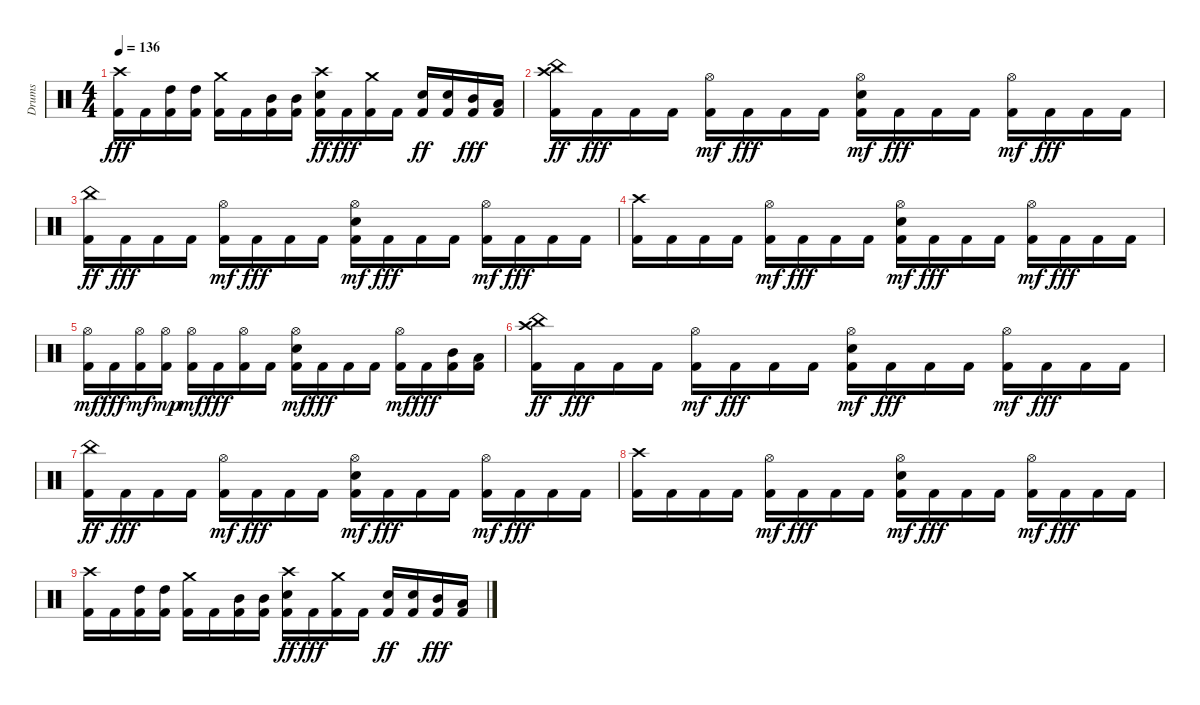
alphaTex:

\track ("Drums" "Drums") {instrument percussion}
\staff {score}
\articulation defaults
\ts (4 4)
\tempo 136
\clef neutral
\ks c
("Kick (hit) 2" "Crash high (hit)").16{dy fff} "Kick (hit) 2".16 ("Kick (hit) 2" "High Tom (hit)").16 ("Kick (hit) 2" "High Tom (hit)").16 ("Kick (hit) 2" "Crash medium (hit)").16 "Kick (hit) 2".16 ("Kick (hit) 2" "Mid Tom (hit)").16 ("Kick (hit) 2" "Mid Tom (hit)").16 ("Kick (hit) 2" "Snare (hit) 2" "Crash high (hit)").16{dy ff} "Kick (hit) 2".16{dy fff} ("Kick (hit) 2" "Crash medium (hit)").16 "Kick (hit) 2".16 ("Kick (hit) 2" "Snare (hit) 2").16{dy ff} ("Kick (hit) 2" "Snare (hit) 2").16 ("Kick (hit) 2" "Mid Tom (hit)").16{dy fff} ("Kick (hit) 2" "Low Tom (hit)").16 |
("Kick (hit) 2" "China (hit)" "Crash high (hit)").16{dy ff} "Kick (hit) 2".16{dy fff} "Kick (hit) 2".16 "Kick (hit) 2".16 ("Kick (hit) 2" "Hi-Hat (open)").16{dy mf} "Kick (hit) 2".16{dy fff} "Kick (hit) 2".16 "Kick (hit) 2".16 ("Kick (hit) 2" "Snare (hit) 2" "Hi-Hat (open)").16{dy mf} "Kick (hit) 2".16{dy fff} "Kick (hit) 2".16 "Kick (hit) 2".16 ("Kick (hit) 2" "Hi-Hat (open)").16{dy mf} "Kick (hit) 2".16{dy fff} "Kick (hit) 2".16 "Kick (hit) 2".16 |
("Kick (hit) 2" "China (hit)").16{dy ff} "Kick (hit) 2".16{dy fff} "Kick (hit) 2".16 "Kick (hit) 2".16 ("Kick (hit) 2" "Hi-Hat (open)").16{dy mf} "Kick (hit) 2".16{dy fff} "Kick (hit) 2".16 "Kick (hit) 2".16 ("Kick (hit) 2" "Snare (hit) 2" "Hi-Hat (open)").16{dy mf} "Kick (hit) 2".16{dy fff} "Kick (hit) 2".16 "Kick (hit) 2".16 ("Kick (hit) 2" "Hi-Hat (open)").16{dy mf} "Kick (hit) 2".16{dy fff} "Kick (hit) 2".16 "Kick (hit) 2".16 |
("Kick (hit) 2" "Crash high (hit)").16 "Kick (hit) 2".16 "Kick (hit) 2".16 "Kick (hit) 2".16 ("Kick (hit) 2" "Hi-Hat (open)").16{dy mf} "Kick (hit) 2".16{dy fff} "Kick (hit) 2".16 "Kick (hit) 2".16 ("Kick (hit) 2" "Snare (hit) 2" "Hi-Hat (open)").16{dy mf} "Kick (hit) 2".16{dy fff} "Kick (hit) 2".16 "Kick (hit) 2".16 ("Kick (hit) 2" "Hi-Hat (open)").16{dy mf} "Kick (hit) 2".16{dy fff} "Kick (hit) 2".16 "Kick (hit) 2".16 |
("Kick (hit) 2" "Hi-Hat (open)").16{dy mf} "Kick (hit) 2".16{dy fff} ("Kick (hit) 2" "Hi-Hat (open)").16{dy mf} ("Kick (hit) 2" "Hi-Hat (open)").16{dy mp} ("Kick (hit) 2" "Hi-Hat (open)").16{dy mf} "Kick (hit) 2".16{dy fff} ("Kick (hit) 2" "Hi-Hat (open)").16 "Kick (hit) 2".16 ("Kick (hit) 2" "Snare (hit) 2" "Hi-Hat (open)").16{dy mf} "Kick (hit) 2".16{dy fff} "Kick (hit) 2".16 "Kick (hit) 2".16 ("Kick (hit) 2" "Hi-Hat (open)").16{dy mf} "Kick (hit) 2".16{dy fff} ("Kick (hit) 2" "Mid Tom (hit)").16 ("Kick (hit) 2" "Low Tom (hit)").16 |
("Kick (hit) 2" "China (hit)" "Crash high (hit)").16{dy ff} "Kick (hit) 2".16{dy fff} "Kick (hit) 2".16 "Kick (hit) 2".16 ("Kick (hit) 2" "Hi-Hat (open)").16{dy mf} "Kick (hit) 2".16{dy fff} "Kick (hit) 2".16 "Kick (hit) 2".16 ("Kick (hit) 2" "Snare (hit) 2" "Hi-Hat (open)").16{dy mf} "Kick (hit) 2".16{dy fff} "Kick (hit) 2".16 "Kick (hit) 2".16 ("Kick (hit) 2" "Hi-Hat (open)").16{dy mf} "Kick (hit) 2".16{dy fff} "Kick (hit) 2".16 "Kick (hit) 2".16 |
("Kick (hit) 2" "China (hit)").16{dy ff} "Kick (hit) 2".16{dy fff} "Kick (hit) 2".16 "Kick (hit) 2".16 ("Kick (hit) 2" "Hi-Hat (open)").16{dy mf} "Kick (hit) 2".16{dy fff} "Kick (hit) 2".16 "Kick (hit) 2".16 ("Kick (hit) 2" "Snare (hit) 2" "Hi-Hat (open)").16{dy mf} "Kick (hit) 2".16{dy fff} "Kick (hit) 2".16 "Kick (hit) 2".16 ("Kick (hit) 2" "Hi-Hat (open)").16{dy mf} "Kick (hit) 2".16{dy fff} "Kick (hit) 2".16 "Kick (hit) 2".16 |
("Kick (hit) 2" "Crash high (hit)").16 "Kick (hit) 2".16 "Kick (hit) 2".16 "Kick (hit) 2".16 ("Kick (hit) 2" "Hi-Hat (open)").16{dy mf} "Kick (hit) 2".16{dy fff} "Kick (hit) 2".16 "Kick (hit) 2".16 ("Kick (hit) 2" "Snare (hit) 2" "Hi-Hat (open)").16{dy mf} "Kick (hit) 2".16{dy fff} "Kick (hit) 2".16 "Kick (hit) 2".16 ("Kick (hit) 2" "Hi-Hat (open)").16{dy mf} "Kick (hit) 2".16{dy fff} "Kick (hit) 2".16 "Kick (hit) 2".16 |
("Kick (hit) 2" "Crash high (hit)").16 "Kick (hit) 2".16 ("Kick (hit) 2" "High Tom (hit)").16 ("Kick (hit) 2" "High Tom (hit)").16 ("Kick (hit) 2" "Crash medium (hit)").16 "Kick (hit) 2".16 ("Kick (hit) 2" "Mid Tom (hit)").16 ("Kick (hit) 2" "Mid Tom (hit)").16 ("Kick (hit) 2" "Snare (hit) 2" "Crash high (hit)").16{dy ff} "Kick (hit) 2".16{dy fff} ("Kick (hit) 2" "Crash medium (hit)").16 "Kick (hit) 2".16 ("Kick (hit) 2" "Snare (hit) 2").16{dy ff} ("Kick (hit) 2" "Snare (hit) 2").16 ("Kick (hit) 2" "Mid Tom (hit)").16{dy fff} ("Kick (hit) 2" "Low Tom (hit)").16
